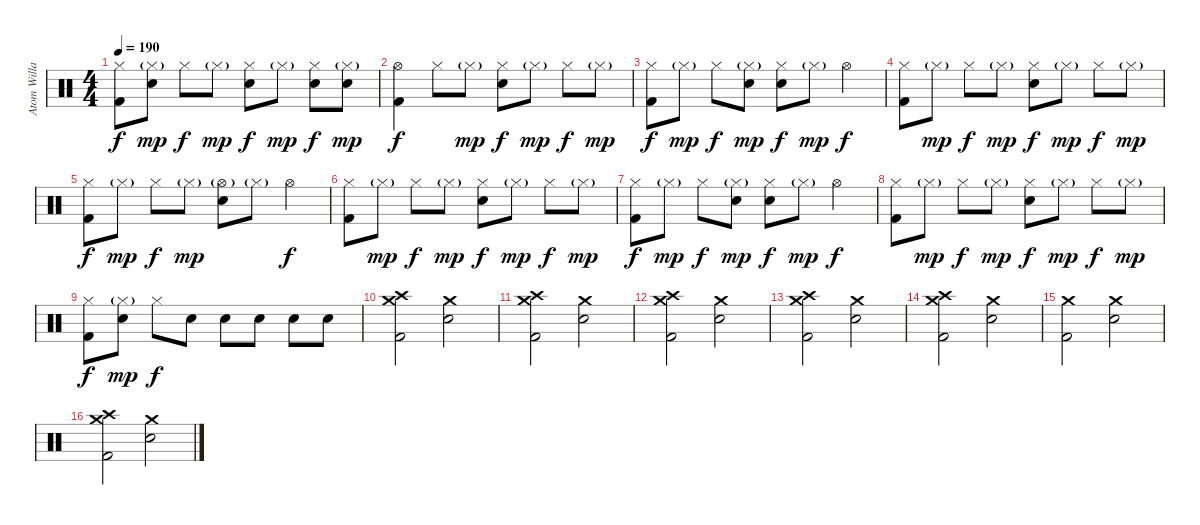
\track ("Atom Willard" "Atom Willa") {instrument percussion}
\staff {score}
\articulation defaults
\ts (4 4)
\tempo 190
\clef neutral
\ks c
("Hi-Hat (closed)" "Kick (hit) 2").8{dy f} ("Hi-Hat (closed)"{g} "Electric Snare (hit)").8{dy mp} "Hi-Hat (closed)".8{dy f} "Hi-Hat (closed)"{g}.8{dy mp} ("Hi-Hat (closed)" "Electric Snare (hit)").8{dy f} "Hi-Hat (closed)"{g}.8{dy mp} ("Hi-Hat (closed)" "Electric Snare (hit)").8{dy f} ("Hi-Hat (closed)"{g} "Electric Snare (hit)").8{dy mp} |
("Hi-Hat (open)" "Kick (hit) 2").4{dy f} "Hi-Hat (closed)".8 "Hi-Hat (closed)"{g}.8{dy mp} ("Hi-Hat (closed)" "Electric Snare (hit)").8{dy f} "Hi-Hat (closed)"{g}.8{dy mp} "Hi-Hat (closed)".8{dy f} "Hi-Hat (closed)"{g}.8{dy mp} |
("Hi-Hat (closed)" "Kick (hit) 2").8{dy f} "Hi-Hat (closed)"{g}.8{dy mp} "Hi-Hat (closed)".8{dy f} ("Hi-Hat (closed)"{g} "Electric Snare (hit)").8{dy mp} ("Hi-Hat (closed)" "Electric Snare (hit)").8{dy f} "Hi-Hat (closed)"{g}.8{dy mp} "Hi-Hat (open)".4{dy f} |
("Hi-Hat (closed)" "Kick (hit) 2").8 "Hi-Hat (closed)"{g}.8{dy mp} "Hi-Hat (closed)".8{dy f} "Hi-Hat (closed)"{g}.8{dy mp} ("Hi-Hat (closed)" "Electric Snare (hit)").8{dy f} "Hi-Hat (closed)"{g}.8{dy mp} "Hi-Hat (closed)".8{dy f} "Hi-Hat (closed)"{g}.8{dy mp} |
("Hi-Hat (closed)" "Kick (hit) 2").8{dy f} "Hi-Hat (closed)"{g}.8{dy mp} "Hi-Hat (closed)".8{dy f} "Hi-Hat (closed)"{g}.8{dy mp} ("Hi-Hat (open)"{g} "Electric Snare (hit)").8 "Hi-Hat (closed)"{g}.8 "Hi-Hat (open)".4{dy f} |
("Hi-Hat (closed)" "Kick (hit) 2").8 "Hi-Hat (closed)"{g}.8{dy mp} "Hi-Hat (closed)".8{dy f} "Hi-Hat (closed)"{g}.8{dy mp} ("Hi-Hat (closed)" "Electric Snare (hit)").8{dy f} "Hi-Hat (closed)"{g}.8{dy mp} "Hi-Hat (closed)".8{dy f} "Hi-Hat (closed)"{g}.8{dy mp} |
("Hi-Hat (closed)" "Kick (hit) 2").8{dy f} "Hi-Hat (closed)"{g}.8{dy mp} "Hi-Hat (closed)".8{dy f} ("Hi-Hat (closed)"{g} "Electric Snare (hit)").8{dy mp} ("Hi-Hat (closed)" "Electric Snare (hit)").8{dy f} "Hi-Hat (closed)"{g}.8{dy mp} "Hi-Hat (open)".4{dy f} |
("Hi-Hat (closed)" "Kick (hit) 2").8 "Hi-Hat (closed)"{g}.8{dy mp} "Hi-Hat (closed)".8{dy f} "Hi-Hat (closed)"{g}.8{dy mp} ("Hi-Hat (closed)" "Electric Snare (hit)").8{dy f} "Hi-Hat (closed)"{g}.8{dy mp} "Hi-Hat (closed)".8{dy f} "Hi-Hat (closed)"{g}.8{dy mp} |
("Hi-Hat (closed)" "Kick (hit) 2").8{dy f} ("Hi-Hat (closed)"{g} "Electric Snare (hit)").8{dy mp} "Hi-Hat (closed)".8{dy f} "Electric Snare (hit)".8 "Electric Snare (hit)".8 "Electric Snare (hit)".8 "Electric Snare (hit)".8 "Electric Snare (hit)".8 |
("Crash high (hit)" "Crash medium (hit)" "Kick (hit) 2").2 ("Crash medium (hit)" "Electric Snare (hit)").2 |
("Crash high (hit)" "Crash medium (hit)" "Kick (hit) 2").2 ("Crash medium (hit)" "Electric Snare (hit)").2 |
("Crash high (hit)" "Crash medium (hit)" "Kick (hit) 2").2 ("Crash medium (hit)" "Electric Snare (hit)").2 |
("Crash high (hit)" "Crash medium (hit)" "Kick (hit) 2").2 ("Crash medium (hit)" "Electric Snare (hit)").2 |
("Crash high (hit)" "Crash medium (hit)" "Kick (hit) 2").2 ("Crash medium (hit)" "Electric Snare (hit)").2 |
("Crash medium (hit)" "Kick (hit) 2").2 ("Crash medium (hit)" "Electric Snare (hit)").2 |
("Crash high (hit)" "Crash medium (hit)" "Kick (hit) 2").2 ("Crash medium (hit)" "Electric Snare (hit)").2
